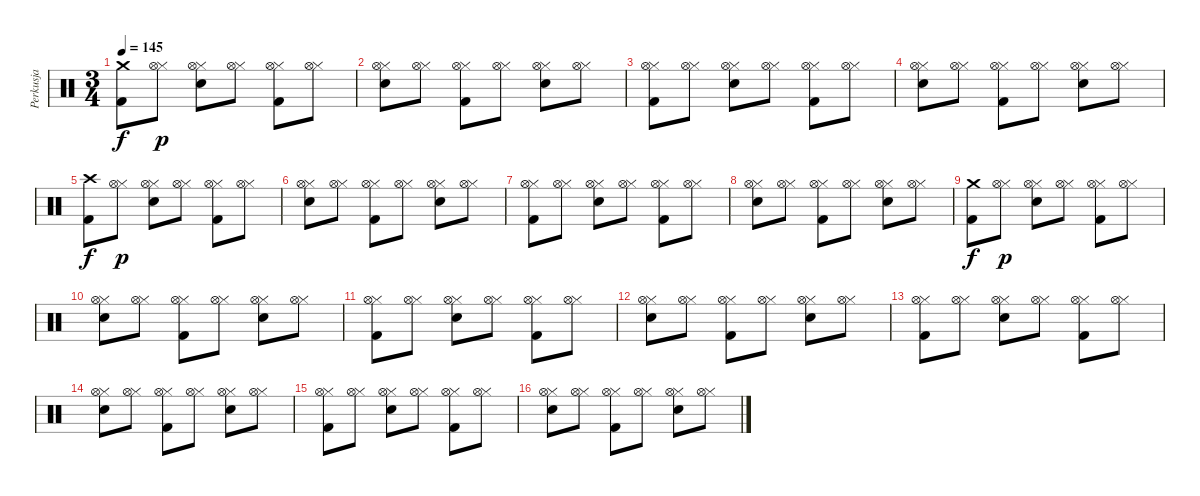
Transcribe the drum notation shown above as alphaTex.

\track ("Perkusja" "Perkusja") {instrument percussion}
\staff {score}
\articulation defaults
\ts (3 4)
\tempo 145
\clef neutral
\ks c
("Kick (hit) 2" "Crash medium (hit)").8{dy f} ("Hi-Hat (closed)" "Hi-Hat (open)").8{dy p} ("Electric Snare (hit)" "Hi-Hat (closed)" "Hi-Hat (open)").8 ("Hi-Hat (closed)" "Hi-Hat (open)").8 ("Kick (hit) 2" "Hi-Hat (closed)" "Hi-Hat (open)").8 ("Hi-Hat (closed)" "Hi-Hat (open)").8 |
("Electric Snare (hit)" "Hi-Hat (closed)" "Hi-Hat (open)").8 ("Hi-Hat (closed)" "Hi-Hat (open)").8 ("Kick (hit) 2" "Hi-Hat (closed)" "Hi-Hat (open)").8 ("Hi-Hat (closed)" "Hi-Hat (open)").8 ("Electric Snare (hit)" "Hi-Hat (closed)" "Hi-Hat (open)").8 ("Hi-Hat (closed)" "Hi-Hat (open)").8 |
("Kick (hit) 2" "Hi-Hat (closed)" "Hi-Hat (open)").8 ("Hi-Hat (closed)" "Hi-Hat (open)").8 ("Electric Snare (hit)" "Hi-Hat (closed)" "Hi-Hat (open)").8 ("Hi-Hat (closed)" "Hi-Hat (open)").8 ("Kick (hit) 2" "Hi-Hat (closed)" "Hi-Hat (open)").8 ("Hi-Hat (closed)" "Hi-Hat (open)").8 |
("Electric Snare (hit)" "Hi-Hat (closed)" "Hi-Hat (open)").8 ("Hi-Hat (closed)" "Hi-Hat (open)").8 ("Kick (hit) 2" "Hi-Hat (closed)" "Hi-Hat (open)").8 ("Hi-Hat (closed)" "Hi-Hat (open)").8 ("Electric Snare (hit)" "Hi-Hat (closed)" "Hi-Hat (open)").8 ("Hi-Hat (closed)" "Hi-Hat (open)").8 |
("Kick (hit) 2" "Crash high (hit)").8{dy f} ("Hi-Hat (closed)" "Hi-Hat (open)").8{dy p} ("Electric Snare (hit)" "Hi-Hat (closed)" "Hi-Hat (open)").8 ("Hi-Hat (closed)" "Hi-Hat (open)").8 ("Kick (hit) 2" "Hi-Hat (closed)" "Hi-Hat (open)").8 ("Hi-Hat (closed)" "Hi-Hat (open)").8 |
("Electric Snare (hit)" "Hi-Hat (closed)" "Hi-Hat (open)").8 ("Hi-Hat (closed)" "Hi-Hat (open)").8 ("Kick (hit) 2" "Hi-Hat (closed)" "Hi-Hat (open)").8 ("Hi-Hat (closed)" "Hi-Hat (open)").8 ("Electric Snare (hit)" "Hi-Hat (closed)" "Hi-Hat (open)").8 ("Hi-Hat (closed)" "Hi-Hat (open)").8 |
("Kick (hit) 2" "Hi-Hat (closed)" "Hi-Hat (open)").8 ("Hi-Hat (closed)" "Hi-Hat (open)").8 ("Electric Snare (hit)" "Hi-Hat (closed)" "Hi-Hat (open)").8 ("Hi-Hat (closed)" "Hi-Hat (open)").8 ("Kick (hit) 2" "Hi-Hat (closed)" "Hi-Hat (open)").8 ("Hi-Hat (closed)" "Hi-Hat (open)").8 |
("Electric Snare (hit)" "Hi-Hat (closed)" "Hi-Hat (open)").8 ("Hi-Hat (closed)" "Hi-Hat (open)").8 ("Kick (hit) 2" "Hi-Hat (closed)" "Hi-Hat (open)").8 ("Hi-Hat (closed)" "Hi-Hat (open)").8 ("Electric Snare (hit)" "Hi-Hat (closed)" "Hi-Hat (open)").8 ("Hi-Hat (closed)" "Hi-Hat (open)").8 |
("Kick (hit) 2" "Crash medium (hit)").8{dy f} ("Hi-Hat (closed)" "Hi-Hat (open)").8{dy p} ("Electric Snare (hit)" "Hi-Hat (closed)" "Hi-Hat (open)").8 ("Hi-Hat (closed)" "Hi-Hat (open)").8 ("Kick (hit) 2" "Hi-Hat (closed)" "Hi-Hat (open)").8 ("Hi-Hat (closed)" "Hi-Hat (open)").8 |
("Electric Snare (hit)" "Hi-Hat (closed)" "Hi-Hat (open)").8 ("Hi-Hat (closed)" "Hi-Hat (open)").8 ("Kick (hit) 2" "Hi-Hat (closed)" "Hi-Hat (open)").8 ("Hi-Hat (closed)" "Hi-Hat (open)").8 ("Electric Snare (hit)" "Hi-Hat (closed)" "Hi-Hat (open)").8 ("Hi-Hat (closed)" "Hi-Hat (open)").8 |
("Kick (hit) 2" "Hi-Hat (closed)" "Hi-Hat (open)").8 ("Hi-Hat (closed)" "Hi-Hat (open)").8 ("Electric Snare (hit)" "Hi-Hat (closed)" "Hi-Hat (open)").8 ("Hi-Hat (closed)" "Hi-Hat (open)").8 ("Kick (hit) 2" "Hi-Hat (closed)" "Hi-Hat (open)").8 ("Hi-Hat (closed)" "Hi-Hat (open)").8 |
("Electric Snare (hit)" "Hi-Hat (closed)" "Hi-Hat (open)").8 ("Hi-Hat (closed)" "Hi-Hat (open)").8 ("Kick (hit) 2" "Hi-Hat (closed)" "Hi-Hat (open)").8 ("Hi-Hat (closed)" "Hi-Hat (open)").8 ("Electric Snare (hit)" "Hi-Hat (closed)" "Hi-Hat (open)").8 ("Hi-Hat (closed)" "Hi-Hat (open)").8 |
("Kick (hit) 2" "Hi-Hat (closed)" "Hi-Hat (open)").8 ("Hi-Hat (closed)" "Hi-Hat (open)").8 ("Electric Snare (hit)" "Hi-Hat (closed)" "Hi-Hat (open)").8 ("Hi-Hat (closed)" "Hi-Hat (open)").8 ("Kick (hit) 2" "Hi-Hat (closed)" "Hi-Hat (open)").8 ("Hi-Hat (closed)" "Hi-Hat (open)").8 |
("Electric Snare (hit)" "Hi-Hat (closed)" "Hi-Hat (open)").8 ("Hi-Hat (closed)" "Hi-Hat (open)").8 ("Kick (hit) 2" "Hi-Hat (closed)" "Hi-Hat (open)").8 ("Hi-Hat (closed)" "Hi-Hat (open)").8 ("Electric Snare (hit)" "Hi-Hat (closed)" "Hi-Hat (open)").8 ("Hi-Hat (closed)" "Hi-Hat (open)").8 |
("Kick (hit) 2" "Hi-Hat (closed)" "Hi-Hat (open)").8 ("Hi-Hat (closed)" "Hi-Hat (open)").8 ("Electric Snare (hit)" "Hi-Hat (closed)" "Hi-Hat (open)").8 ("Hi-Hat (closed)" "Hi-Hat (open)").8 ("Kick (hit) 2" "Hi-Hat (closed)" "Hi-Hat (open)").8 ("Hi-Hat (closed)" "Hi-Hat (open)").8 |
("Electric Snare (hit)" "Hi-Hat (closed)" "Hi-Hat (open)").8 ("Hi-Hat (closed)" "Hi-Hat (open)").8 ("Kick (hit) 2" "Hi-Hat (closed)" "Hi-Hat (open)").8 ("Hi-Hat (closed)" "Hi-Hat (open)").8 ("Electric Snare (hit)" "Hi-Hat (closed)" "Hi-Hat (open)").8 ("Hi-Hat (closed)" "Hi-Hat (open)").8
